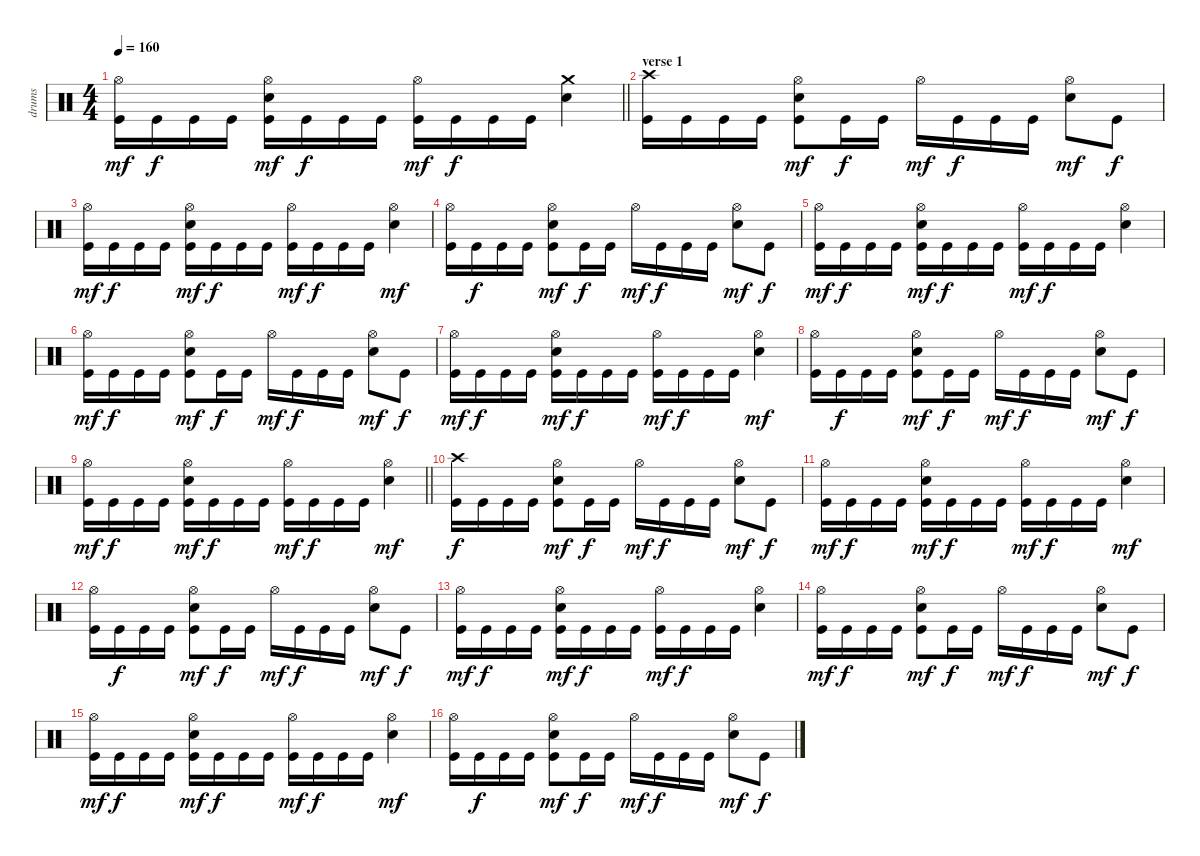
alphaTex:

\track ("drums" "drums") {instrument percussion}
\staff {score}
\articulation defaults
\ts (4 4)
\tempo 160
\clef neutral
\barLineRight lightlight
\ks c
("Hi-Hat (open)" "Kick (hit)").16{dy mf} "Kick (hit)".16{dy f} "Kick (hit)".16 "Kick (hit)".16 ("Hi-Hat (open)" "Electric Snare (hit)" "Kick (hit)").16{dy mf} "Kick (hit)".16{dy f} "Kick (hit)".16 "Kick (hit)".16 ("Hi-Hat (open)" "Kick (hit)").16{dy mf} "Kick (hit)".16{dy f} "Kick (hit)".16 "Kick (hit)".16 ("Crash medium (hit)" "Electric Snare (hit)").4 |
\section ("" "verse 1")
("Crash high (hit)" "Kick (hit)").16 "Kick (hit)".16 "Kick (hit)".16 "Kick (hit)".16 ("Hi-Hat (open)" "Electric Snare (hit)" "Kick (hit)").8{dy mf} "Kick (hit)".16{dy f} "Kick (hit)".16 "Hi-Hat (open)".16{dy mf} "Kick (hit)".16{dy f} "Kick (hit)".16 "Kick (hit)".16 ("Hi-Hat (open)" "Electric Snare (hit)").8{dy mf} "Kick (hit)".8{dy f} |
("Hi-Hat (open)" "Kick (hit)").16{dy mf} "Kick (hit)".16{dy f} "Kick (hit)".16 "Kick (hit)".16 ("Hi-Hat (open)" "Electric Snare (hit)" "Kick (hit)").16{dy mf} "Kick (hit)".16{dy f} "Kick (hit)".16 "Kick (hit)".16 ("Hi-Hat (open)" "Kick (hit)").16{dy mf} "Kick (hit)".16{dy f} "Kick (hit)".16 "Kick (hit)".16 ("Hi-Hat (open)" "Electric Snare (hit)").4{dy mf} |
("Hi-Hat (open)" "Kick (hit)").16 "Kick (hit)".16{dy f} "Kick (hit)".16 "Kick (hit)".16 ("Hi-Hat (open)" "Electric Snare (hit)" "Kick (hit)").8{dy mf} "Kick (hit)".16{dy f} "Kick (hit)".16 "Hi-Hat (open)".16{dy mf} "Kick (hit)".16{dy f} "Kick (hit)".16 "Kick (hit)".16 ("Hi-Hat (open)" "Electric Snare (hit)").8{dy mf} "Kick (hit)".8{dy f} |
("Hi-Hat (open)" "Kick (hit)").16{dy mf} "Kick (hit)".16{dy f} "Kick (hit)".16 "Kick (hit)".16 ("Hi-Hat (open)" "Electric Snare (hit)" "Kick (hit)").16{dy mf} "Kick (hit)".16{dy f} "Kick (hit)".16 "Kick (hit)".16 ("Hi-Hat (open)" "Kick (hit)").16{dy mf} "Kick (hit)".16{dy f} "Kick (hit)".16 "Kick (hit)".16 ("Hi-Hat (open)" "Electric Snare (hit)").4 |
("Hi-Hat (open)" "Kick (hit)").16{dy mf} "Kick (hit)".16{dy f} "Kick (hit)".16 "Kick (hit)".16 ("Hi-Hat (open)" "Electric Snare (hit)" "Kick (hit)").8{dy mf} "Kick (hit)".16{dy f} "Kick (hit)".16 "Hi-Hat (open)".16{dy mf} "Kick (hit)".16{dy f} "Kick (hit)".16 "Kick (hit)".16 ("Hi-Hat (open)" "Electric Snare (hit)").8{dy mf} "Kick (hit)".8{dy f} |
("Hi-Hat (open)" "Kick (hit)").16{dy mf} "Kick (hit)".16{dy f} "Kick (hit)".16 "Kick (hit)".16 ("Hi-Hat (open)" "Electric Snare (hit)" "Kick (hit)").16{dy mf} "Kick (hit)".16{dy f} "Kick (hit)".16 "Kick (hit)".16 ("Hi-Hat (open)" "Kick (hit)").16{dy mf} "Kick (hit)".16{dy f} "Kick (hit)".16 "Kick (hit)".16 ("Hi-Hat (open)" "Electric Snare (hit)").4{dy mf} |
("Hi-Hat (open)" "Kick (hit)").16 "Kick (hit)".16{dy f} "Kick (hit)".16 "Kick (hit)".16 ("Hi-Hat (open)" "Electric Snare (hit)" "Kick (hit)").8{dy mf} "Kick (hit)".16{dy f} "Kick (hit)".16 "Hi-Hat (open)".16{dy mf} "Kick (hit)".16{dy f} "Kick (hit)".16 "Kick (hit)".16 ("Hi-Hat (open)" "Electric Snare (hit)").8{dy mf} "Kick (hit)".8{dy f} |
\barLineRight lightlight
("Hi-Hat (open)" "Kick (hit)").16{dy mf} "Kick (hit)".16{dy f} "Kick (hit)".16 "Kick (hit)".16 ("Hi-Hat (open)" "Electric Snare (hit)" "Kick (hit)").16{dy mf} "Kick (hit)".16{dy f} "Kick (hit)".16 "Kick (hit)".16 ("Hi-Hat (open)" "Kick (hit)").16{dy mf} "Kick (hit)".16{dy f} "Kick (hit)".16 "Kick (hit)".16 ("Hi-Hat (open)" "Electric Snare (hit)").4{dy mf} |
("Crash high (hit)" "Kick (hit)").16{dy f} "Kick (hit)".16 "Kick (hit)".16 "Kick (hit)".16 ("Hi-Hat (open)" "Electric Snare (hit)" "Kick (hit)").8{dy mf} "Kick (hit)".16{dy f} "Kick (hit)".16 "Hi-Hat (open)".16{dy mf} "Kick (hit)".16{dy f} "Kick (hit)".16 "Kick (hit)".16 ("Hi-Hat (open)" "Electric Snare (hit)").8{dy mf} "Kick (hit)".8{dy f} |
("Hi-Hat (open)" "Kick (hit)").16{dy mf} "Kick (hit)".16{dy f} "Kick (hit)".16 "Kick (hit)".16 ("Hi-Hat (open)" "Electric Snare (hit)" "Kick (hit)").16{dy mf} "Kick (hit)".16{dy f} "Kick (hit)".16 "Kick (hit)".16 ("Hi-Hat (open)" "Kick (hit)").16{dy mf} "Kick (hit)".16{dy f} "Kick (hit)".16 "Kick (hit)".16 ("Hi-Hat (open)" "Electric Snare (hit)").4{dy mf} |
("Hi-Hat (open)" "Kick (hit)").16 "Kick (hit)".16{dy f} "Kick (hit)".16 "Kick (hit)".16 ("Hi-Hat (open)" "Electric Snare (hit)" "Kick (hit)").8{dy mf} "Kick (hit)".16{dy f} "Kick (hit)".16 "Hi-Hat (open)".16{dy mf} "Kick (hit)".16{dy f} "Kick (hit)".16 "Kick (hit)".16 ("Hi-Hat (open)" "Electric Snare (hit)").8{dy mf} "Kick (hit)".8{dy f} |
("Hi-Hat (open)" "Kick (hit)").16{dy mf} "Kick (hit)".16{dy f} "Kick (hit)".16 "Kick (hit)".16 ("Hi-Hat (open)" "Electric Snare (hit)" "Kick (hit)").16{dy mf} "Kick (hit)".16{dy f} "Kick (hit)".16 "Kick (hit)".16 ("Hi-Hat (open)" "Kick (hit)").16{dy mf} "Kick (hit)".16{dy f} "Kick (hit)".16 "Kick (hit)".16 ("Hi-Hat (open)" "Electric Snare (hit)").4 |
("Hi-Hat (open)" "Kick (hit)").16{dy mf} "Kick (hit)".16{dy f} "Kick (hit)".16 "Kick (hit)".16 ("Hi-Hat (open)" "Electric Snare (hit)" "Kick (hit)").8{dy mf} "Kick (hit)".16{dy f} "Kick (hit)".16 "Hi-Hat (open)".16{dy mf} "Kick (hit)".16{dy f} "Kick (hit)".16 "Kick (hit)".16 ("Hi-Hat (open)" "Electric Snare (hit)").8{dy mf} "Kick (hit)".8{dy f} |
("Hi-Hat (open)" "Kick (hit)").16{dy mf} "Kick (hit)".16{dy f} "Kick (hit)".16 "Kick (hit)".16 ("Hi-Hat (open)" "Electric Snare (hit)" "Kick (hit)").16{dy mf} "Kick (hit)".16{dy f} "Kick (hit)".16 "Kick (hit)".16 ("Hi-Hat (open)" "Kick (hit)").16{dy mf} "Kick (hit)".16{dy f} "Kick (hit)".16 "Kick (hit)".16 ("Hi-Hat (open)" "Electric Snare (hit)").4{dy mf} |
("Hi-Hat (open)" "Kick (hit)").16 "Kick (hit)".16{dy f} "Kick (hit)".16 "Kick (hit)".16 ("Hi-Hat (open)" "Electric Snare (hit)" "Kick (hit)").8{dy mf} "Kick (hit)".16{dy f} "Kick (hit)".16 "Hi-Hat (open)".16{dy mf} "Kick (hit)".16{dy f} "Kick (hit)".16 "Kick (hit)".16 ("Hi-Hat (open)" "Electric Snare (hit)").8{dy mf} "Kick (hit)".8{dy f}
